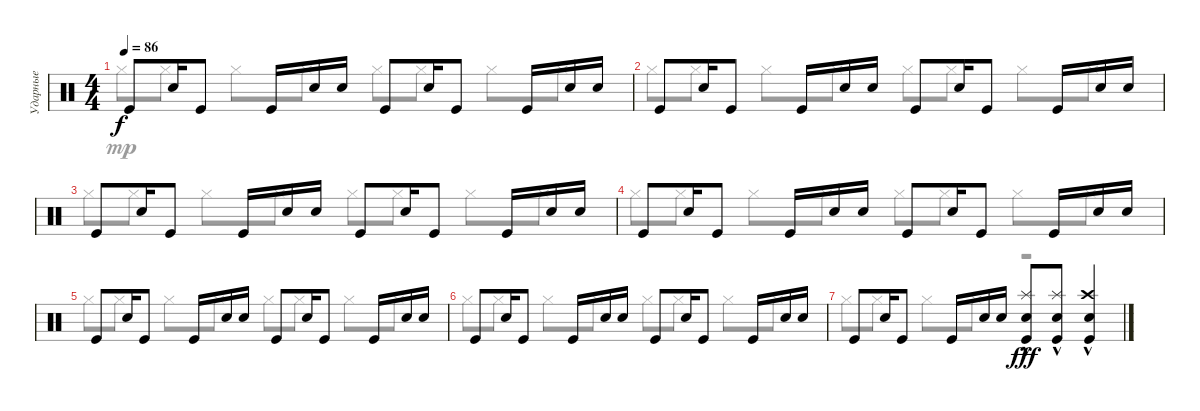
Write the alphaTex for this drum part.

\track ("Ударные" "Ударные") {instrument percussion}
\staff {score}
\articulation defaults
\voice
\ts (4 4)
\tempo 86
\clef neutral
\ks c "Kick (hit)".8{dy f} "Electric Snare (hit)".16 "Kick (hit)".8 "Kick (hit)".16 "Electric Snare (hit)".16 "Electric Snare (hit)".16 "Kick (hit)".8 "Electric Snare (hit)".16 "Kick (hit)".8 "Kick (hit)".16 "Electric Snare (hit)".16 "Electric Snare (hit)".16
|
"Kick (hit)".8 "Electric Snare (hit)".16 "Kick (hit)".8 "Kick (hit)".16 "Electric Snare (hit)".16 "Electric Snare (hit)".16 "Kick (hit)".8 "Electric Snare (hit)".16 "Kick (hit)".8 "Kick (hit)".16 "Electric Snare (hit)".16 "Electric Snare (hit)".16 |
"Kick (hit)".8 "Electric Snare (hit)".16 "Kick (hit)".8 "Kick (hit)".16 "Electric Snare (hit)".16 "Electric Snare (hit)".16 "Kick (hit)".8 "Electric Snare (hit)".16 "Kick (hit)".8 "Kick (hit)".16 "Electric Snare (hit)".16 "Electric Snare (hit)".16 |
"Kick (hit)".8 "Electric Snare (hit)".16 "Kick (hit)".8 "Kick (hit)".16 "Electric Snare (hit)".16 "Electric Snare (hit)".16 "Kick (hit)".8 "Electric Snare (hit)".16 "Kick (hit)".8 "Kick (hit)".16 "Electric Snare (hit)".16 "Electric Snare (hit)".16 |
"Kick (hit)".8 "Electric Snare (hit)".16 "Kick (hit)".8 "Kick (hit)".16 "Electric Snare (hit)".16 "Electric Snare (hit)".16 "Kick (hit)".8 "Electric Snare (hit)".16 "Kick (hit)".8 "Kick (hit)".16 "Electric Snare (hit)".16 "Electric Snare (hit)".16 |
"Kick (hit)".8 "Electric Snare (hit)".16 "Kick (hit)".8 "Kick (hit)".16 "Electric Snare (hit)".16 "Electric Snare (hit)".16 "Kick (hit)".8 "Electric Snare (hit)".16 "Kick (hit)".8 "Kick (hit)".16 "Electric Snare (hit)".16 "Electric Snare (hit)".16 |
"Kick (hit)".8 "Electric Snare (hit)".16 "Kick (hit)".8 "Kick (hit)".16 "Electric Snare (hit)".16 "Electric Snare (hit)".16 ("Kick (hit)" "Electric Snare (hit)"{hac} "Splash (hit)").8{dy fff} ("Kick (hit)" "Electric Snare (hit)"{hac} "Splash (hit)").8 ("Kick (hit)" "Electric Snare (hit)"{hac} "Crash high (hit)").4 |
\voice
\clef neutral
\ottava regular
\simile none
\ks c "Hi-Hat (closed)".8{dy mp} "Hi-Hat (closed)".8 "Hi-Hat (closed)".8 "Hi-Hat (closed)".8 "Hi-Hat (closed)".8 "Hi-Hat (closed)".8 "Hi-Hat (closed)".8 "Hi-Hat (closed)".8
|
"Hi-Hat (closed)".8 "Hi-Hat (closed)".8 "Hi-Hat (closed)".8 "Hi-Hat (closed)".8 "Hi-Hat (closed)".8 "Hi-Hat (closed)".8 "Hi-Hat (closed)".8 "Hi-Hat (closed)".8 |
"Hi-Hat (closed)".8 "Hi-Hat (closed)".8 "Hi-Hat (closed)".8 "Hi-Hat (closed)".8 "Hi-Hat (closed)".8 "Hi-Hat (closed)".8 "Hi-Hat (closed)".8 "Hi-Hat (closed)".8 |
"Hi-Hat (closed)".8 "Hi-Hat (closed)".8 "Hi-Hat (closed)".8 "Hi-Hat (closed)".8 "Hi-Hat (closed)".8 "Hi-Hat (closed)".8 "Hi-Hat (closed)".8 "Hi-Hat (closed)".8 |
"Hi-Hat (closed)".8 "Hi-Hat (closed)".8 "Hi-Hat (closed)".8 "Hi-Hat (closed)".8 "Hi-Hat (closed)".8 "Hi-Hat (closed)".8 "Hi-Hat (closed)".8 "Hi-Hat (closed)".8 |
"Hi-Hat (closed)".8 "Hi-Hat (closed)".8 "Hi-Hat (closed)".8 "Hi-Hat (closed)".8 "Hi-Hat (closed)".8 "Hi-Hat (closed)".8 "Hi-Hat (closed)".8 "Hi-Hat (closed)".8 |
"Hi-Hat (closed)".8 "Hi-Hat (closed)".8 "Hi-Hat (closed)".8 "Hi-Hat (closed)".8 r.2 |
